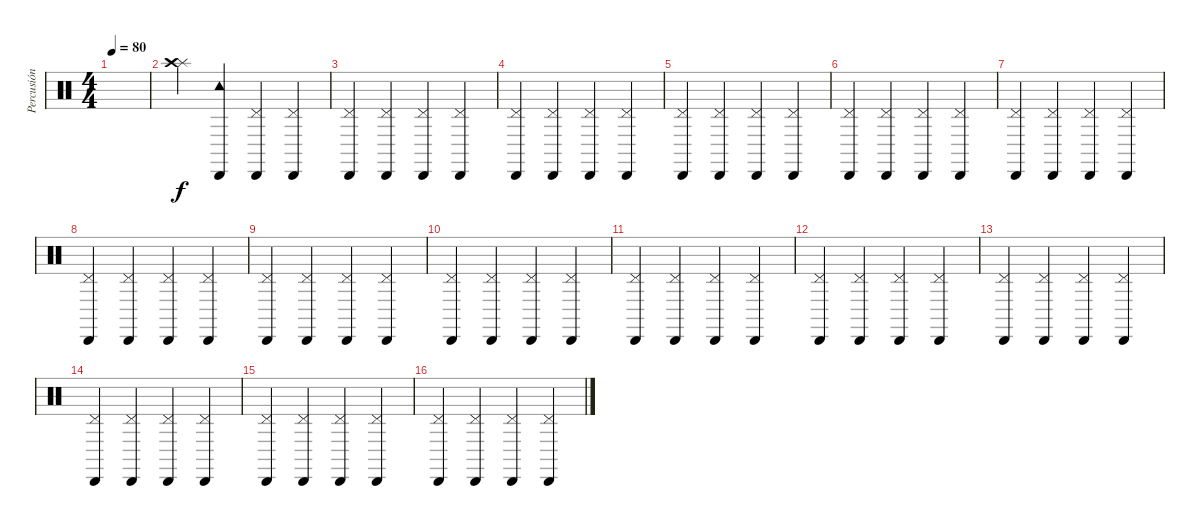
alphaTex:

\track ("Percusión" "Percusión") {instrument percussion}
\staff {score}
\articulation defaults
\ts (4 4)
\tempo 80
\clef neutral
\ks c
|
("Splash (hit)" "Crash high (hit)").4 ("Cabasa (hit)" "Tambourine (hit)").4 ("Cabasa (hit)" "Pedal Hi-Hat (hit)").4 ("Cabasa (hit)" "Pedal Hi-Hat (hit)").4 |
("Cabasa (hit)" "Pedal Hi-Hat (hit)").4 ("Cabasa (hit)" "Pedal Hi-Hat (hit)").4 ("Cabasa (hit)" "Pedal Hi-Hat (hit)").4 ("Cabasa (hit)" "Pedal Hi-Hat (hit)").4 |
("Cabasa (hit)" "Pedal Hi-Hat (hit)").4 ("Cabasa (hit)" "Pedal Hi-Hat (hit)").4 ("Cabasa (hit)" "Pedal Hi-Hat (hit)").4 ("Cabasa (hit)" "Pedal Hi-Hat (hit)").4 |
("Cabasa (hit)" "Pedal Hi-Hat (hit)").4 ("Cabasa (hit)" "Pedal Hi-Hat (hit)").4 ("Cabasa (hit)" "Pedal Hi-Hat (hit)").4 ("Cabasa (hit)" "Pedal Hi-Hat (hit)").4 |
("Cabasa (hit)" "Pedal Hi-Hat (hit)").4 ("Cabasa (hit)" "Pedal Hi-Hat (hit)").4 ("Cabasa (hit)" "Pedal Hi-Hat (hit)").4 ("Cabasa (hit)" "Pedal Hi-Hat (hit)").4 |
("Cabasa (hit)" "Pedal Hi-Hat (hit)").4 ("Cabasa (hit)" "Pedal Hi-Hat (hit)").4 ("Cabasa (hit)" "Pedal Hi-Hat (hit)").4 ("Cabasa (hit)" "Pedal Hi-Hat (hit)").4 |
("Cabasa (hit)" "Pedal Hi-Hat (hit)").4 ("Cabasa (hit)" "Pedal Hi-Hat (hit)").4 ("Cabasa (hit)" "Pedal Hi-Hat (hit)").4 ("Cabasa (hit)" "Pedal Hi-Hat (hit)").4 |
("Cabasa (hit)" "Pedal Hi-Hat (hit)").4 ("Cabasa (hit)" "Pedal Hi-Hat (hit)").4 ("Cabasa (hit)" "Pedal Hi-Hat (hit)").4 ("Cabasa (hit)" "Pedal Hi-Hat (hit)").4 |
("Cabasa (hit)" "Pedal Hi-Hat (hit)").4 ("Cabasa (hit)" "Pedal Hi-Hat (hit)").4 ("Cabasa (hit)" "Pedal Hi-Hat (hit)").4 ("Cabasa (hit)" "Pedal Hi-Hat (hit)").4 |
("Cabasa (hit)" "Pedal Hi-Hat (hit)").4 ("Cabasa (hit)" "Pedal Hi-Hat (hit)").4 ("Cabasa (hit)" "Pedal Hi-Hat (hit)").4 ("Cabasa (hit)" "Pedal Hi-Hat (hit)").4 |
("Cabasa (hit)" "Pedal Hi-Hat (hit)").4 ("Cabasa (hit)" "Pedal Hi-Hat (hit)").4 ("Cabasa (hit)" "Pedal Hi-Hat (hit)").4 ("Cabasa (hit)" "Pedal Hi-Hat (hit)").4 |
("Cabasa (hit)" "Pedal Hi-Hat (hit)").4 ("Cabasa (hit)" "Pedal Hi-Hat (hit)").4 ("Cabasa (hit)" "Pedal Hi-Hat (hit)").4 ("Cabasa (hit)" "Pedal Hi-Hat (hit)").4 |
("Cabasa (hit)" "Pedal Hi-Hat (hit)").4 ("Cabasa (hit)" "Pedal Hi-Hat (hit)").4 ("Cabasa (hit)" "Pedal Hi-Hat (hit)").4 ("Cabasa (hit)" "Pedal Hi-Hat (hit)").4 |
("Cabasa (hit)" "Pedal Hi-Hat (hit)").4 ("Cabasa (hit)" "Pedal Hi-Hat (hit)").4 ("Cabasa (hit)" "Pedal Hi-Hat (hit)").4 ("Cabasa (hit)" "Pedal Hi-Hat (hit)").4 |
("Cabasa (hit)" "Pedal Hi-Hat (hit)").4 ("Cabasa (hit)" "Pedal Hi-Hat (hit)").4 ("Cabasa (hit)" "Pedal Hi-Hat (hit)").4 ("Cabasa (hit)" "Pedal Hi-Hat (hit)").4
